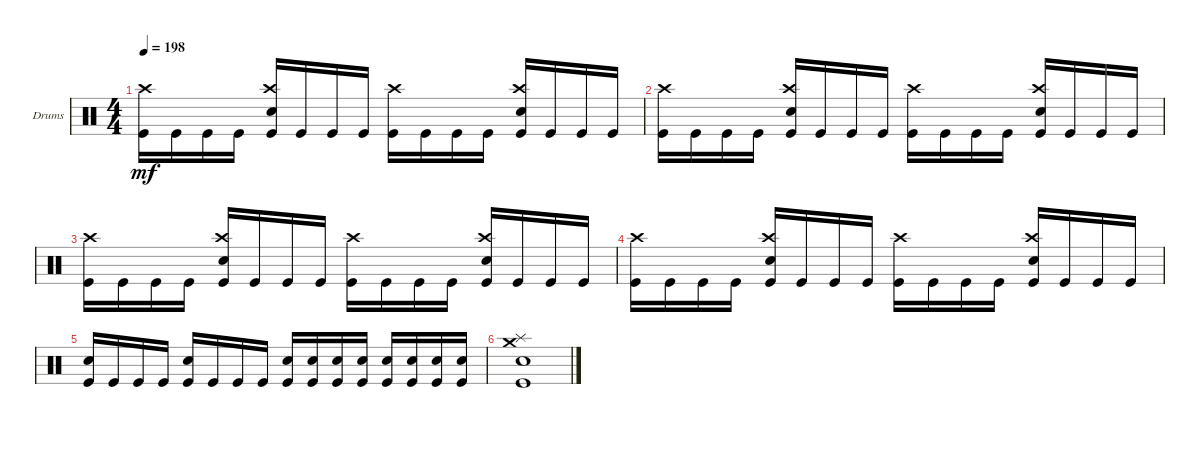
\bracketExtendMode groupsimilarinstruments
\firstSystemTrackNameOrientation horizontal
\otherSystemsTrackNameOrientation horizontal
\track ("Drumkit" "Drums") {instrument percussion}
\staff {score}
\articulation defaults
\ts (4 4)
\tempo 198
\clef neutral
\ks c
("Kick (hit)" "Crash high (hit)").16{dy mf} "Kick (hit)".16 "Kick (hit)".16 "Kick (hit)".16 ("Kick (hit)" "Snare (hit) 2" "Crash high (hit)").16 "Kick (hit)".16 "Kick (hit)".16 "Kick (hit)".16 ("Kick (hit)" "Crash high (hit)").16 "Kick (hit)".16 "Kick (hit)".16 "Kick (hit)".16 ("Kick (hit)" "Snare (hit) 2" "Crash high (hit)").16 "Kick (hit)".16 "Kick (hit)".16 "Kick (hit)".16 |
("Kick (hit)" "Crash high (hit)").16 "Kick (hit)".16 "Kick (hit)".16 "Kick (hit)".16 ("Kick (hit)" "Snare (hit) 2" "Crash high (hit)").16 "Kick (hit)".16 "Kick (hit)".16 "Kick (hit)".16 ("Kick (hit)" "Crash high (hit)").16 "Kick (hit)".16 "Kick (hit)".16 "Kick (hit)".16 ("Kick (hit)" "Snare (hit) 2" "Crash high (hit)").16 "Kick (hit)".16 "Kick (hit)".16 "Kick (hit)".16 |
("Kick (hit)" "Crash high (hit)").16 "Kick (hit)".16 "Kick (hit)".16 "Kick (hit)".16 ("Kick (hit)" "Snare (hit) 2" "Crash high (hit)").16 "Kick (hit)".16 "Kick (hit)".16 "Kick (hit)".16 ("Kick (hit)" "Crash high (hit)").16 "Kick (hit)".16 "Kick (hit)".16 "Kick (hit)".16 ("Kick (hit)" "Snare (hit) 2" "Crash high (hit)").16 "Kick (hit)".16 "Kick (hit)".16 "Kick (hit)".16 |
("Kick (hit)" "Crash high (hit)").16 "Kick (hit)".16 "Kick (hit)".16 "Kick (hit)".16 ("Kick (hit)" "Snare (hit) 2" "Crash high (hit)").16 "Kick (hit)".16 "Kick (hit)".16 "Kick (hit)".16 ("Kick (hit)" "Crash high (hit)").16 "Kick (hit)".16 "Kick (hit)".16 "Kick (hit)".16 ("Kick (hit)" "Snare (hit) 2" "Crash high (hit)").16 "Kick (hit)".16 "Kick (hit)".16 "Kick (hit)".16 |
("Kick (hit)" "Snare (hit) 2").16 "Kick (hit)".16 "Kick (hit)".16 "Kick (hit)".16 ("Kick (hit)" "Snare (hit) 2").16 "Kick (hit)".16 "Kick (hit)".16 "Kick (hit)".16 ("Kick (hit)" "Snare (hit) 2").16 ("Kick (hit)" "Snare (hit) 2").16 ("Kick (hit)" "Snare (hit) 2").16 ("Kick (hit)" "Snare (hit) 2").16 ("Kick (hit)" "Snare (hit) 2").16 ("Kick (hit)" "Snare (hit) 2").16 ("Kick (hit)" "Snare (hit) 2").16 ("Kick (hit)" "Snare (hit) 2").16 |
("Splash (hit)" "Crash medium (hit)" "Snare (hit) 2" "Kick (hit)").1
